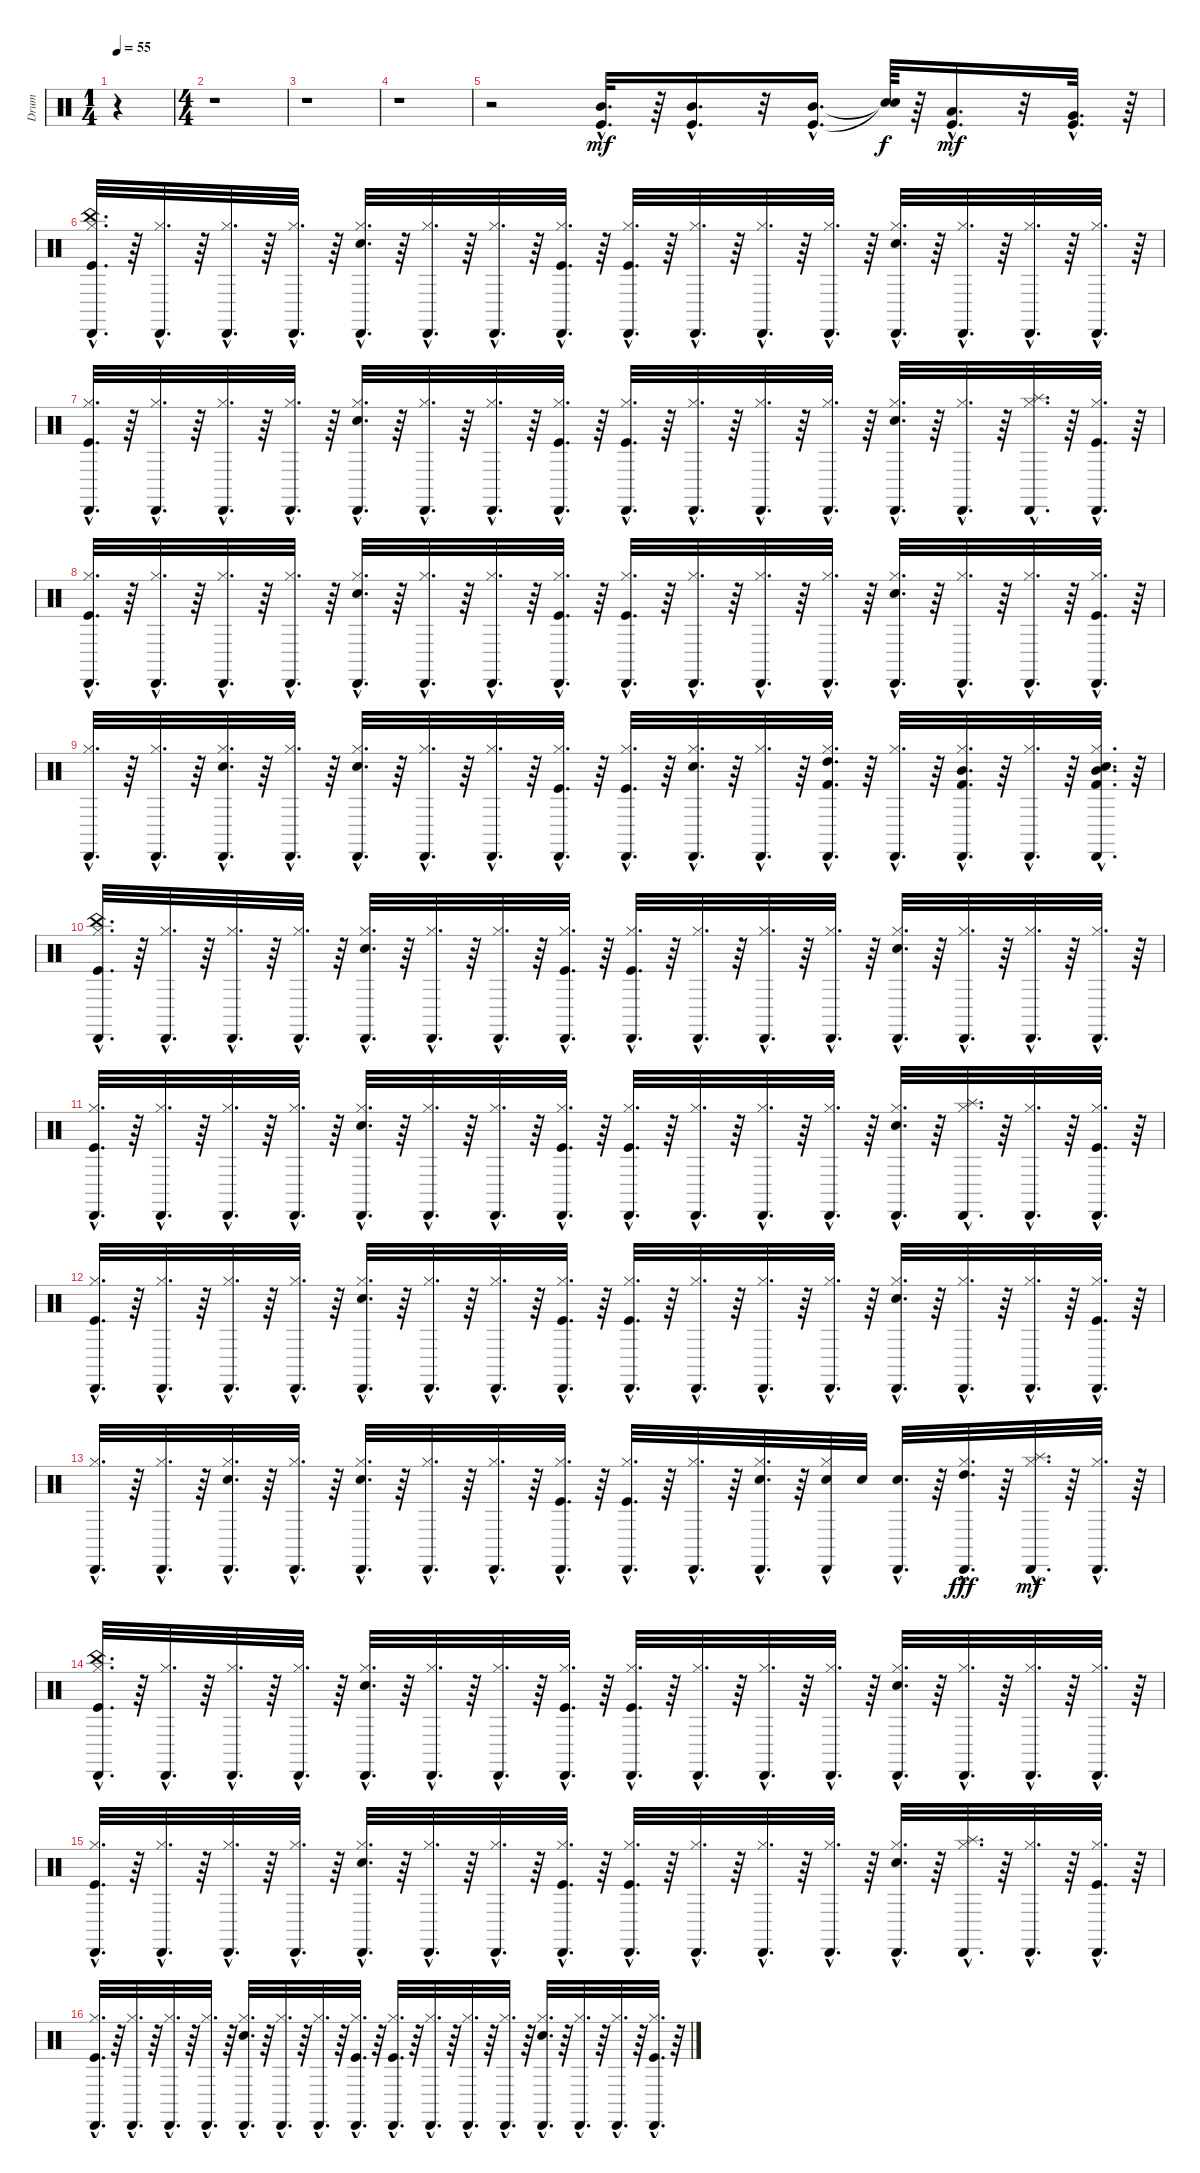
\track ("Drum" "Drum") {instrument percussion}
\staff {score}
\articulation defaults
\ts (1 4)
\tempo 55
\clef neutral
\ks c
r.4{dy mf} |
\ts (4 4)
r.1 |
r.1 |
r.1 |
r.2 ("Mid Tom (hit)"{hac} "Kick (hit)"{hac}).32{d} r.64 ("Mid Tom (hit)"{hac} "Kick (hit)"{hac}).16{d} r.32 ("Mid Tom (hit)"{hac} "Kick (hit)"{hac}).16{d} ("Snare (hit)"{t} "Snare (hit)"{t}).64{dy f} r.64 ("Low Tom (hit)"{hac} "Kick (hit)"{hac}).16{d dy mf} r.32 ("Very Low Tom (hit)"{hac} "Kick (hit)"{hac}).32{d} r.64 |
("Cabasa (hit)"{hac} "China (hit)"{hac} "Kick (hit)"{hac} "Hi-Hat (closed)"{hac}).32{d} r.64 ("Cabasa (hit)"{hac} "Hi-Hat (closed)"{hac}).32{d} r.64 ("Cabasa (hit)"{hac} "Hi-Hat (closed)"{hac}).32{d} r.64 ("Cabasa (hit)"{hac} "Hi-Hat (closed)"{hac}).32{d} r.64 ("Cabasa (hit)"{hac} "Snare (hit) 2"{hac} "Hi-Hat (closed)"{hac}).32{d} r.64 ("Cabasa (hit)"{hac} "Hi-Hat (closed)"{hac}).32{d} r.64 ("Cabasa (hit)"{hac} "Hi-Hat (closed)"{hac}).32{d} r.64 ("Cabasa (hit)"{hac} "Kick (hit)"{hac} "Hi-Hat (closed)"{hac}).32{d} r.64 ("Cabasa (hit)"{hac} "Kick (hit)"{hac} "Hi-Hat (closed)"{hac}).32{d} r.64 ("Cabasa (hit)"{hac} "Hi-Hat (closed)"{hac}).32{d} r.64 ("Cabasa (hit)"{hac} "Hi-Hat (closed)"{hac}).32{d} r.64 ("Cabasa (hit)"{hac} "Hi-Hat (closed)"{hac}).32{d} r.64 ("Cabasa (hit)"{hac} "Snare (hit) 2"{hac} "Hi-Hat (closed)"{hac}).32{d} r.64 ("Cabasa (hit)"{hac} "Hi-Hat (closed)"{hac}).32{d} r.64 ("Cabasa (hit)"{hac} "Hi-Hat (closed)"{hac}).32{d} r.64 ("Cabasa (hit)"{hac} "Hi-Hat (closed)"{hac}).32{d} r.64 |
("Cabasa (hit)"{hac} "Hi-Hat (closed)"{hac} "Kick (hit)"{hac}).32{d} r.64 ("Cabasa (hit)"{hac} "Hi-Hat (closed)"{hac}).32{d} r.64 ("Cabasa (hit)"{hac} "Hi-Hat (closed)"{hac}).32{d} r.64 ("Cabasa (hit)"{hac} "Hi-Hat (closed)"{hac}).32{d} r.64 ("Cabasa (hit)"{hac} "Hi-Hat (closed)"{hac} "Snare (hit) 2"{hac}).32{d} r.64 ("Cabasa (hit)"{hac} "Hi-Hat (closed)"{hac}).32{d} r.64 ("Cabasa (hit)"{hac} "Hi-Hat (closed)"{hac}).32{d} r.64 ("Cabasa (hit)"{hac} "Kick (hit)"{hac} "Hi-Hat (closed)"{hac}).32{d} r.64 ("Cabasa (hit)"{hac} "Hi-Hat (closed)"{hac} "Kick (hit)"{hac}).32{d} r.64 ("Cabasa (hit)"{hac} "Hi-Hat (closed)"{hac}).32{d} r.64 ("Cabasa (hit)"{hac} "Hi-Hat (closed)"{hac}).32{d} r.64 ("Cabasa (hit)"{hac} "Hi-Hat (closed)"{hac}).32{d} r.64 ("Cabasa (hit)"{hac} "Hi-Hat (closed)"{hac} "Snare (hit) 2"{hac}).32{d} r.64 ("Cabasa (hit)"{hac} "Hi-Hat (closed)"{hac}).32{d} r.64 ("Cabasa (hit)"{hac} "Splash (hit)"{hac} "Hi-Hat (closed)"{hac}).32{d} r.64 ("Cabasa (hit)"{hac} "Hi-Hat (closed)"{hac} "Kick (hit)"{hac}).32{d} r.64 |
("Cabasa (hit)"{hac} "Hi-Hat (closed)"{hac} "Kick (hit)"{hac}).32{d} r.64 ("Cabasa (hit)"{hac} "Hi-Hat (closed)"{hac}).32{d} r.64 ("Cabasa (hit)"{hac} "Hi-Hat (closed)"{hac}).32{d} r.64 ("Cabasa (hit)"{hac} "Hi-Hat (closed)"{hac}).32{d} r.64 ("Cabasa (hit)"{hac} "Hi-Hat (closed)"{hac} "Snare (hit) 2"{hac}).32{d} r.64 ("Cabasa (hit)"{hac} "Hi-Hat (closed)"{hac}).32{d} r.64 ("Cabasa (hit)"{hac} "Hi-Hat (closed)"{hac}).32{d} r.64 ("Cabasa (hit)"{hac} "Kick (hit)"{hac} "Hi-Hat (closed)"{hac}).32{d} r.64 ("Cabasa (hit)"{hac} "Hi-Hat (closed)"{hac} "Kick (hit)"{hac}).32{d} r.64 ("Cabasa (hit)"{hac} "Hi-Hat (closed)"{hac}).32{d} r.64 ("Cabasa (hit)"{hac} "Hi-Hat (closed)"{hac}).32{d} r.64 ("Cabasa (hit)"{hac} "Hi-Hat (closed)"{hac}).32{d} r.64 ("Cabasa (hit)"{hac} "Hi-Hat (closed)"{hac} "Snare (hit) 2"{hac}).32{d} r.64 ("Cabasa (hit)"{hac} "Hi-Hat (closed)"{hac}).32{d} r.64 ("Cabasa (hit)"{hac} "Hi-Hat (closed)"{hac}).32{d} r.64 ("Cabasa (hit)"{hac} "Hi-Hat (closed)"{hac} "Kick (hit)"{hac}).32{d} r.64 |
("Cabasa (hit)"{hac} "Hi-Hat (closed)"{hac}).32{d} r.64 ("Cabasa (hit)"{hac} "Hi-Hat (closed)"{hac}).32{d} r.64 ("Cabasa (hit)"{hac} "Hi-Hat (closed)"{hac} "Snare (hit) 2"{hac}).32{d} r.64 ("Cabasa (hit)"{hac} "Hi-Hat (closed)"{hac}).32{d} r.64 ("Cabasa (hit)"{hac} "Hi-Hat (closed)"{hac} "Snare (hit) 2"{hac}).32{d} r.64 ("Cabasa (hit)"{hac} "Hi-Hat (closed)"{hac}).32{d} r.64 ("Cabasa (hit)"{hac} "Hi-Hat (closed)"{hac}).32{d} r.64 ("Cabasa (hit)"{hac} "Hi-Hat (closed)"{hac} "Kick (hit)"{hac}).32{d} r.64 ("Cabasa (hit)"{hac} "Hi-Hat (closed)"{hac} "Kick (hit)"{hac}).32{d} r.64 ("Cabasa (hit)"{hac} "Electric Snare (hit)"{hac} "Hi-Hat (closed)"{hac}).32{d} r.64 ("Cabasa (hit)"{hac} "Hi-Hat (closed)"{hac}).32{d} r.64 ("Cabasa (hit)"{hac} "High Tom (hit)"{hac} "Kick (hit) 2"{hac} "Hi-Hat (closed)"{hac}).32{d} r.64 ("Cabasa (hit)"{hac} "Hi-Hat (closed)"{hac}).32{d} r.64 ("Cabasa (hit)"{hac} "Kick (hit) 2"{hac} "Mid Tom (hit)"{hac} "Hi-Hat (closed)"{hac}).32{d} r.64 ("Cabasa (hit)"{hac} "Hi-Hat (closed)"{hac}).32{d} r.64 ("Cabasa (hit)"{hac} "Electric Snare (hit)"{hac} "Kick (hit) 2"{hac} "Mid Tom (hit)"{hac} "Hi-Hat (closed)"{hac}).32{d} r.64 |
("Cabasa (hit)"{hac} "Hi-Hat (closed)"{hac} "China (hit)"{hac} "Kick (hit)"{hac}).32{d} r.64 ("Cabasa (hit)"{hac} "Hi-Hat (closed)"{hac}).32{d} r.64 ("Cabasa (hit)"{hac} "Hi-Hat (closed)"{hac}).32{d} r.64 ("Cabasa (hit)"{hac} "Hi-Hat (closed)"{hac}).32{d} r.64 ("Cabasa (hit)"{hac} "Hi-Hat (closed)"{hac} "Snare (hit) 2"{hac}).32{d} r.64 ("Cabasa (hit)"{hac} "Hi-Hat (closed)"{hac}).32{d} r.64 ("Cabasa (hit)"{hac} "Hi-Hat (closed)"{hac}).32{d} r.64 ("Cabasa (hit)"{hac} "Kick (hit)"{hac} "Hi-Hat (closed)"{hac}).32{d} r.64 ("Cabasa (hit)"{hac} "Hi-Hat (closed)"{hac} "Kick (hit)"{hac}).32{d} r.64 ("Cabasa (hit)"{hac} "Hi-Hat (closed)"{hac}).32{d} r.64 ("Cabasa (hit)"{hac} "Hi-Hat (closed)"{hac}).32{d} r.64 ("Cabasa (hit)"{hac} "Hi-Hat (closed)"{hac}).32{d} r.64 ("Cabasa (hit)"{hac} "Hi-Hat (closed)"{hac} "Snare (hit) 2"{hac}).32{d} r.64 ("Cabasa (hit)"{hac} "Hi-Hat (closed)"{hac}).32{d} r.64 ("Cabasa (hit)"{hac} "Hi-Hat (closed)"{hac}).32{d} r.64 ("Cabasa (hit)"{hac} "Hi-Hat (closed)"{hac}).32{d} r.64 |
("Cabasa (hit)"{hac} "Kick (hit)"{hac} "Hi-Hat (closed)"{hac}).32{d} r.64 ("Cabasa (hit)"{hac} "Hi-Hat (closed)"{hac}).32{d} r.64 ("Cabasa (hit)"{hac} "Hi-Hat (closed)"{hac}).32{d} r.64 ("Cabasa (hit)"{hac} "Hi-Hat (closed)"{hac}).32{d} r.64 ("Cabasa (hit)"{hac} "Snare (hit) 2"{hac} "Hi-Hat (closed)"{hac}).32{d} r.64 ("Cabasa (hit)"{hac} "Hi-Hat (closed)"{hac}).32{d} r.64 ("Cabasa (hit)"{hac} "Hi-Hat (closed)"{hac}).32{d} r.64 ("Cabasa (hit)"{hac} "Hi-Hat (closed)"{hac} "Kick (hit)"{hac}).32{d} r.64 ("Cabasa (hit)"{hac} "Kick (hit)"{hac} "Hi-Hat (closed)"{hac}).32{d} r.64 ("Cabasa (hit)"{hac} "Hi-Hat (closed)"{hac}).32{d} r.64 ("Cabasa (hit)"{hac} "Hi-Hat (closed)"{hac}).32{d} r.64 ("Cabasa (hit)"{hac} "Hi-Hat (closed)"{hac}).32{d} r.64 ("Cabasa (hit)"{hac} "Snare (hit) 2"{hac} "Hi-Hat (closed)"{hac}).32{d} r.64 ("Cabasa (hit)"{hac} "Splash (hit)"{hac} "Hi-Hat (closed)"{hac}).32{d} r.64 ("Cabasa (hit)"{hac} "Hi-Hat (closed)"{hac}).32{d} r.64 ("Cabasa (hit)"{hac} "Kick (hit)"{hac} "Hi-Hat (closed)"{hac}).32{d} r.64 |
("Cabasa (hit)"{hac} "Kick (hit)"{hac} "Hi-Hat (closed)"{hac}).32{d} r.64 ("Cabasa (hit)"{hac} "Hi-Hat (closed)"{hac}).32{d} r.64 ("Cabasa (hit)"{hac} "Hi-Hat (closed)"{hac}).32{d} r.64 ("Cabasa (hit)"{hac} "Hi-Hat (closed)"{hac}).32{d} r.64 ("Cabasa (hit)"{hac} "Snare (hit) 2"{hac} "Hi-Hat (closed)"{hac}).32{d} r.64 ("Cabasa (hit)"{hac} "Hi-Hat (closed)"{hac}).32{d} r.64 ("Cabasa (hit)"{hac} "Hi-Hat (closed)"{hac}).32{d} r.64 ("Cabasa (hit)"{hac} "Hi-Hat (closed)"{hac} "Kick (hit)"{hac}).32{d} r.64 ("Cabasa (hit)"{hac} "Kick (hit)"{hac} "Hi-Hat (closed)"{hac}).32{d} r.64 ("Cabasa (hit)"{hac} "Hi-Hat (closed)"{hac}).32{d} r.64 ("Cabasa (hit)"{hac} "Hi-Hat (closed)"{hac}).32{d} r.64 ("Cabasa (hit)"{hac} "Hi-Hat (closed)"{hac}).32{d} r.64 ("Cabasa (hit)"{hac} "Snare (hit) 2"{hac} "Hi-Hat (closed)"{hac}).32{d} r.64 ("Cabasa (hit)"{hac} "Hi-Hat (closed)"{hac}).32{d} r.64 ("Cabasa (hit)"{hac} "Hi-Hat (closed)"{hac}).32{d} r.64 ("Cabasa (hit)"{hac} "Kick (hit)"{hac} "Hi-Hat (closed)"{hac}).32{d} r.64 |
("Cabasa (hit)"{hac} "Hi-Hat (closed)"{hac}).32{d} r.64 ("Cabasa (hit)"{hac} "Hi-Hat (closed)"{hac}).32{d} r.64 ("Cabasa (hit)"{hac} "Snare (hit) 2"{hac} "Hi-Hat (closed)"{hac}).32{d} r.64 ("Cabasa (hit)"{hac} "Hi-Hat (closed)"{hac}).32{d} r.64 ("Cabasa (hit)"{hac} "Snare (hit) 2"{hac} "Hi-Hat (closed)"{hac}).32{d} r.64 ("Cabasa (hit)"{hac} "Hi-Hat (closed)"{hac}).32{d} r.64 ("Cabasa (hit)"{hac} "Hi-Hat (closed)"{hac}).32{d} r.64 ("Cabasa (hit)"{hac} "Kick (hit)"{hac} "Hi-Hat (closed)"{hac}).32{d} r.64 ("Cabasa (hit)"{hac} "Kick (hit)"{hac} "Hi-Hat (closed)"{hac}).32{d} r.64 ("Cabasa (hit)"{hac} "Hi-Hat (closed)"{hac}).32{d} r.64 ("Cabasa (hit)"{hac} "Hi-Hat (closed)"{hac} "Snare (hit) 2"{hac}).32{d} r.64 ("Cabasa (hit)"{hac} "Hi-Hat (closed)" "Snare (hit) 2").32 "Snare (hit) 2".32 ("Cabasa (hit)"{hac} "Snare (hit) 2"{hac}).32{d} r.64 ("Cabasa (hit)"{hac} "Hi-Hat (closed)"{hac} "High Tom (hit)"{hac}).32{d dy fff} r.64 ("Cabasa (hit)"{hac} "Hi-Hat (closed)"{hac} "Splash (hit)"{hac}).32{d dy mf} r.64 ("Cabasa (hit)"{hac} "Hi-Hat (closed)"{hac}).32{d} r.64 |
("Cabasa (hit)"{hac} "China (hit)"{hac} "Kick (hit)"{hac} "Hi-Hat (closed)"{hac}).32{d} r.64 ("Cabasa (hit)"{hac} "Hi-Hat (closed)"{hac}).32{d} r.64 ("Cabasa (hit)"{hac} "Hi-Hat (closed)"{hac}).32{d} r.64 ("Cabasa (hit)"{hac} "Hi-Hat (closed)"{hac}).32{d} r.64 ("Cabasa (hit)"{hac} "Snare (hit) 2"{hac} "Hi-Hat (closed)"{hac}).32{d} r.64 ("Cabasa (hit)"{hac} "Hi-Hat (closed)"{hac}).32{d} r.64 ("Cabasa (hit)"{hac} "Hi-Hat (closed)"{hac}).32{d} r.64 ("Cabasa (hit)"{hac} "Kick (hit)"{hac} "Hi-Hat (closed)"{hac}).32{d} r.64 ("Cabasa (hit)"{hac} "Kick (hit)"{hac} "Hi-Hat (closed)"{hac}).32{d} r.64 ("Cabasa (hit)"{hac} "Hi-Hat (closed)"{hac}).32{d} r.64 ("Cabasa (hit)"{hac} "Hi-Hat (closed)"{hac}).32{d} r.64 ("Cabasa (hit)"{hac} "Hi-Hat (closed)"{hac}).32{d} r.64 ("Cabasa (hit)"{hac} "Snare (hit) 2"{hac} "Hi-Hat (closed)"{hac}).32{d} r.64 ("Cabasa (hit)"{hac} "Hi-Hat (closed)"{hac}).32{d} r.64 ("Cabasa (hit)"{hac} "Hi-Hat (closed)"{hac}).32{d} r.64 ("Cabasa (hit)"{hac} "Hi-Hat (closed)"{hac}).32{d} r.64 |
("Cabasa (hit)"{hac} "Hi-Hat (closed)"{hac} "Kick (hit)"{hac}).32{d} r.64 ("Cabasa (hit)"{hac} "Hi-Hat (closed)"{hac}).32{d} r.64 ("Cabasa (hit)"{hac} "Hi-Hat (closed)"{hac}).32{d} r.64 ("Cabasa (hit)"{hac} "Hi-Hat (closed)"{hac}).32{d} r.64 ("Cabasa (hit)"{hac} "Hi-Hat (closed)"{hac} "Snare (hit) 2"{hac}).32{d} r.64 ("Cabasa (hit)"{hac} "Hi-Hat (closed)"{hac}).32{d} r.64 ("Cabasa (hit)"{hac} "Hi-Hat (closed)"{hac}).32{d} r.64 ("Cabasa (hit)"{hac} "Kick (hit)"{hac} "Hi-Hat (closed)"{hac}).32{d} r.64 ("Cabasa (hit)"{hac} "Hi-Hat (closed)"{hac} "Kick (hit)"{hac}).32{d} r.64 ("Cabasa (hit)"{hac} "Hi-Hat (closed)"{hac}).32{d} r.64 ("Cabasa (hit)"{hac} "Hi-Hat (closed)"{hac}).32{d} r.64 ("Cabasa (hit)"{hac} "Hi-Hat (closed)"{hac}).32{d} r.64 ("Cabasa (hit)"{hac} "Hi-Hat (closed)"{hac} "Snare (hit) 2"{hac}).32{d} r.64 ("Cabasa (hit)"{hac} "Splash (hit)"{hac} "Hi-Hat (closed)"{hac}).32{d} r.64 ("Cabasa (hit)"{hac} "Hi-Hat (closed)"{hac}).32{d} r.64 ("Cabasa (hit)"{hac} "Hi-Hat (closed)"{hac} "Kick (hit)"{hac}).32{d} r.64 |
("Cabasa (hit)"{hac} "Hi-Hat (closed)"{hac} "Kick (hit)"{hac}).32{d} r.64 ("Cabasa (hit)"{hac} "Hi-Hat (closed)"{hac}).32{d} r.64 ("Cabasa (hit)"{hac} "Hi-Hat (closed)"{hac}).32{d} r.64 ("Cabasa (hit)"{hac} "Hi-Hat (closed)"{hac}).32{d} r.64 ("Cabasa (hit)"{hac} "Hi-Hat (closed)"{hac} "Snare (hit) 2"{hac}).32{d} r.64 ("Cabasa (hit)"{hac} "Hi-Hat (closed)"{hac}).32{d} r.64 ("Cabasa (hit)"{hac} "Hi-Hat (closed)"{hac}).32{d} r.64 ("Cabasa (hit)"{hac} "Kick (hit)"{hac} "Hi-Hat (closed)"{hac}).32{d} r.64 ("Cabasa (hit)"{hac} "Hi-Hat (closed)"{hac} "Kick (hit)"{hac}).32{d} r.64 ("Cabasa (hit)"{hac} "Hi-Hat (closed)"{hac}).32{d} r.64 ("Cabasa (hit)"{hac} "Hi-Hat (closed)"{hac}).32{d} r.64 ("Cabasa (hit)"{hac} "Hi-Hat (closed)"{hac}).32{d} r.64 ("Cabasa (hit)"{hac} "Hi-Hat (closed)"{hac} "Snare (hit) 2"{hac}).32{d} r.64 ("Cabasa (hit)"{hac} "Hi-Hat (closed)"{hac}).32{d} r.64 ("Cabasa (hit)"{hac} "Hi-Hat (closed)"{hac}).32{d} r.64 ("Cabasa (hit)"{hac} "Hi-Hat (closed)"{hac} "Kick (hit)"{hac}).32{d} r.64
